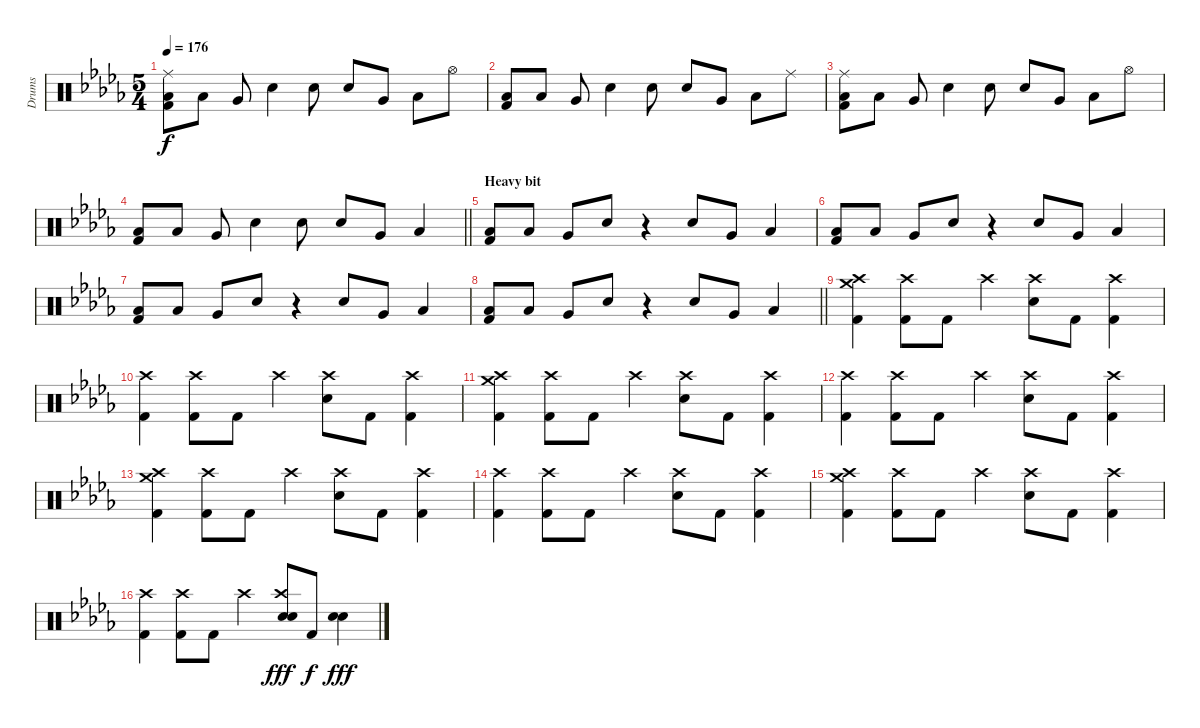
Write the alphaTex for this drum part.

\track ("Drums" "Drums") {instrument percussion}
\staff {score}
\articulation defaults
\ts (5 4)
\tempo 176
\clef neutral
\ks db
("Ride (middle)" "Low Floor Tom (hit)" "Kick (hit) 2").8{dy f} "Low Floor Tom (hit)".8 "Very Low Tom (hit)".8 "Snare (hit) 2".4 "Snare (hit) 2".8 "Snare (hit) 2".8 "Very Low Tom (hit)".8 "Low Floor Tom (hit)".8 "Hi-Hat (open)".8 |
("Low Floor Tom (hit)" "Kick (hit) 2").8 "Low Floor Tom (hit)".8 "Very Low Tom (hit)".8 "Snare (hit) 2".4 "Snare (hit) 2".8 "Snare (hit) 2".8 "Very Low Tom (hit)".8 "Low Floor Tom (hit)".8 "Ride (middle)".8 |
("Ride (middle)" "Low Floor Tom (hit)" "Kick (hit) 2").8 "Low Floor Tom (hit)".8 "Very Low Tom (hit)".8 "Snare (hit) 2".4 "Snare (hit) 2".8 "Snare (hit) 2".8 "Very Low Tom (hit)".8 "Low Floor Tom (hit)".8 "Hi-Hat (open)".8 |
\barLineRight lightlight
("Low Floor Tom (hit)" "Kick (hit) 2").8 "Low Floor Tom (hit)".8 "Very Low Tom (hit)".8 "Snare (hit) 2".4 "Snare (hit) 2".8 "Snare (hit) 2".8 "Very Low Tom (hit)".8 "Low Floor Tom (hit)".4 |
\section ("" "Heavy bit")
("Low Floor Tom (hit)" "Kick (hit) 2").8 "Low Floor Tom (hit)".8 "Very Low Tom (hit)".8 "Snare (hit) 2".8 r.4 "Snare (hit) 2".8 "Very Low Tom (hit)".8 "Low Floor Tom (hit)".4 |
("Low Floor Tom (hit)" "Kick (hit) 2").8 "Low Floor Tom (hit)".8 "Very Low Tom (hit)".8 "Snare (hit) 2".8 r.4 "Snare (hit) 2".8 "Very Low Tom (hit)".8 "Low Floor Tom (hit)".4 |
("Low Floor Tom (hit)" "Kick (hit) 2").8 "Low Floor Tom (hit)".8 "Very Low Tom (hit)".8 "Snare (hit) 2".8 r.4 "Snare (hit) 2".8 "Very Low Tom (hit)".8 "Low Floor Tom (hit)".4 |
\barLineRight lightlight
("Low Floor Tom (hit)" "Kick (hit) 2").8 "Low Floor Tom (hit)".8 "Very Low Tom (hit)".8 "Snare (hit) 2".8 r.4 "Snare (hit) 2".8 "Very Low Tom (hit)".8 "Low Floor Tom (hit)".4 |
("Crash medium (hit)" "Crash high (hit)" "Kick (hit) 2").4 ("Crash high (hit)" "Kick (hit) 2").8 "Kick (hit) 2".8 "Crash high (hit)".4 ("Crash high (hit)" "Snare (hit) 2").8 "Kick (hit) 2".8 ("Crash high (hit)" "Kick (hit) 2").4 |
("Crash high (hit)" "Kick (hit) 2").4 ("Crash high (hit)" "Kick (hit) 2").8 "Kick (hit) 2".8 "Crash high (hit)".4 ("Crash high (hit)" "Snare (hit) 2").8 "Kick (hit) 2".8 ("Crash high (hit)" "Kick (hit) 2").4 |
("Crash medium (hit)" "Crash high (hit)" "Kick (hit) 2").4 ("Crash high (hit)" "Kick (hit) 2").8 "Kick (hit) 2".8 "Crash high (hit)".4 ("Crash high (hit)" "Snare (hit) 2").8 "Kick (hit) 2".8 ("Crash high (hit)" "Kick (hit) 2").4 |
("Crash high (hit)" "Kick (hit) 2").4 ("Crash high (hit)" "Kick (hit) 2").8 "Kick (hit) 2".8 "Crash high (hit)".4 ("Crash high (hit)" "Snare (hit) 2").8 "Kick (hit) 2".8 ("Crash high (hit)" "Kick (hit) 2").4 |
("Crash medium (hit)" "Crash high (hit)" "Kick (hit) 2").4 ("Crash high (hit)" "Kick (hit) 2").8 "Kick (hit) 2".8 "Crash high (hit)".4 ("Crash high (hit)" "Snare (hit) 2").8 "Kick (hit) 2".8 ("Crash high (hit)" "Kick (hit) 2").4 |
("Crash high (hit)" "Kick (hit) 2").4 ("Crash high (hit)" "Kick (hit) 2").8 "Kick (hit) 2".8 "Crash high (hit)".4 ("Crash high (hit)" "Snare (hit) 2").8 "Kick (hit) 2".8 ("Crash high (hit)" "Kick (hit) 2").4 |
("Crash medium (hit)" "Crash high (hit)" "Kick (hit) 2").4 ("Crash high (hit)" "Kick (hit) 2").8 "Kick (hit) 2".8 "Crash high (hit)".4 ("Crash high (hit)" "Snare (hit) 2").8 "Kick (hit) 2".8 ("Crash high (hit)" "Kick (hit) 2").4 |
("Crash high (hit)" "Kick (hit) 2").4 ("Crash high (hit)" "Kick (hit) 2").8 "Kick (hit) 2".8 "Crash high (hit)".4 ("Crash high (hit)" "Snare (hit) 2" "Electric Snare (hit)").8{dy fff} "Kick (hit) 2".8{dy f} ("Snare (hit) 2" "Electric Snare (hit)").4{dy fff}
